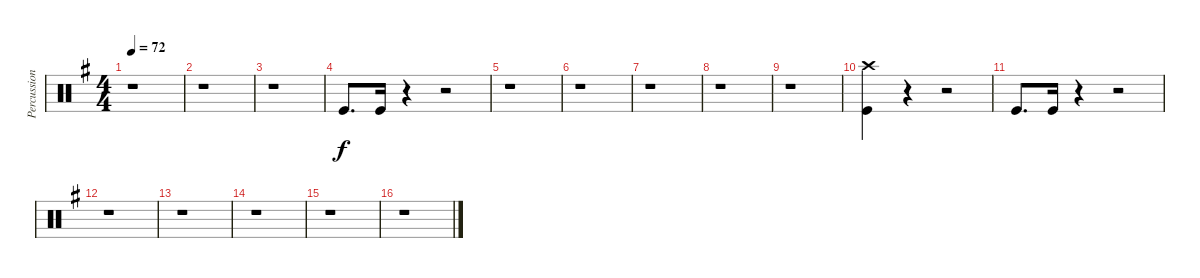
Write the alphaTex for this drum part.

\track ("Percussions" "Percussion") {instrument percussion}
\staff {score}
\articulation defaults
\ts (4 4)
\tempo 72
\clef neutral
\ks eminor
r.1{dy f} |
r.1 |
r.1 |
"Kick (hit)".8{d} "Kick (hit)".16 r.4 r.2 |
r.1 |
r.1 |
r.1 |
r.1 |
r.1 |
("Crash high (hit)" "Kick (hit)").4 r.4 r.2 |
"Kick (hit)".8{d} "Kick (hit)".16 r.4 r.2 |
r.1 |
r.1 |
r.1 |
r.1 |
r.1
